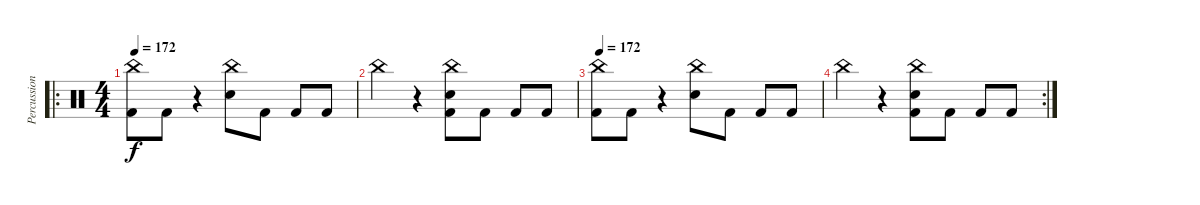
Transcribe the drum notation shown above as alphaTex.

\track ("Percussions" "Percussion") {instrument percussion}
\staff {score}
\articulation defaults
\ro
\ts (4 4)
\tempo 172
\clef neutral
\ks c
("China (hit)" "Kick (hit) 2").8{dy f} "Kick (hit) 2".8 r.4 ("China (hit)" "Electric Snare (hit)").8 "Kick (hit) 2".8 "Kick (hit) 2".8 "Kick (hit) 2".8 |
"China (hit)".4 r.4 ("China (hit)" "Electric Snare (hit)" "Kick (hit) 2").8 "Kick (hit) 2".8 "Kick (hit) 2".8 "Kick (hit) 2".8 |
\tempo 172
("China (hit)" "Kick (hit) 2").8 "Kick (hit) 2".8 r.4 ("China (hit)" "Electric Snare (hit)").8 "Kick (hit) 2".8 "Kick (hit) 2".8 "Kick (hit) 2".8 |
\rc 2 "China (hit)".4
r.4 ("China (hit)" "Electric Snare (hit)" "Kick (hit) 2").8 "Kick (hit) 2".8 "Kick (hit) 2".8 "Kick (hit) 2".8
